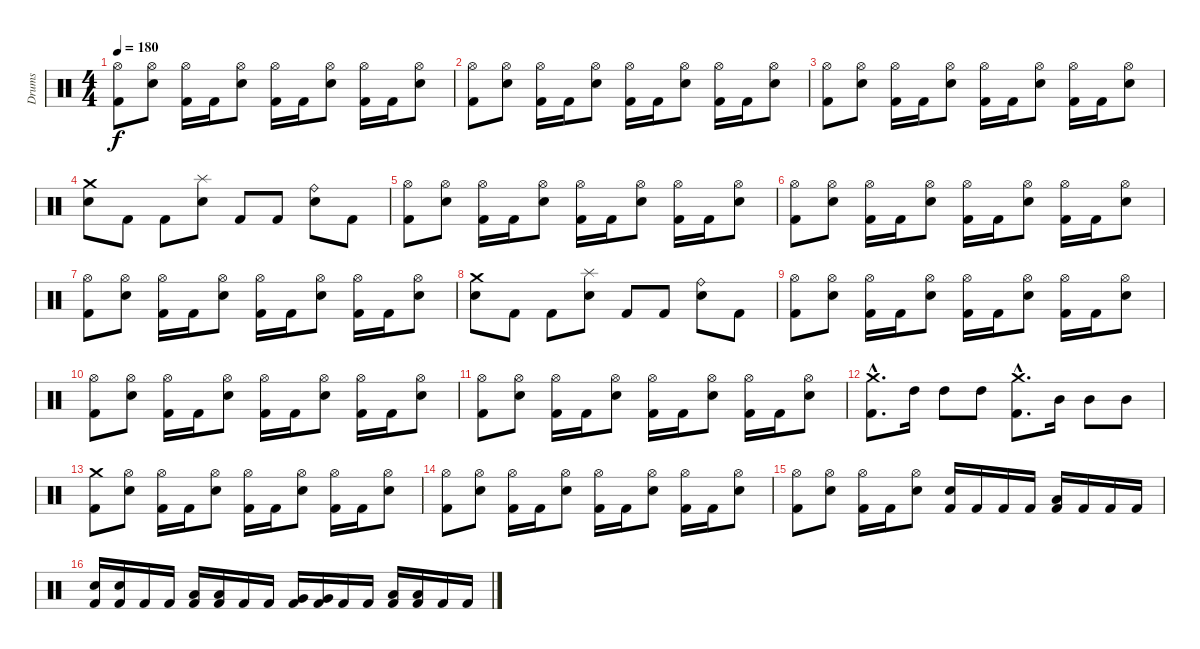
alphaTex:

\track ("Drums" "Drums") {instrument percussion}
\staff {score}
\articulation defaults
\ts (4 4)
\tempo 180
\clef neutral
\ks c
("Hi-Hat (open)" "Kick (hit) 2").8{dy f} ("Hi-Hat (open)" "Electric Snare (hit)").8 ("Hi-Hat (open)" "Kick (hit) 2").16 "Kick (hit) 2".16 ("Hi-Hat (open)" "Electric Snare (hit)").8 ("Hi-Hat (open)" "Kick (hit) 2").16 "Kick (hit) 2".16 ("Hi-Hat (open)" "Electric Snare (hit)").8 ("Hi-Hat (open)" "Kick (hit) 2").16 "Kick (hit) 2".16 ("Hi-Hat (open)" "Electric Snare (hit)").8 |
("Hi-Hat (open)" "Kick (hit) 2").8 ("Hi-Hat (open)" "Electric Snare (hit)").8 ("Hi-Hat (open)" "Kick (hit) 2").16 "Kick (hit) 2".16 ("Hi-Hat (open)" "Electric Snare (hit)").8 ("Hi-Hat (open)" "Kick (hit) 2").16 "Kick (hit) 2".16 ("Hi-Hat (open)" "Electric Snare (hit)").8 ("Hi-Hat (open)" "Kick (hit) 2").16 "Kick (hit) 2".16 ("Hi-Hat (open)" "Electric Snare (hit)").8 |
("Hi-Hat (open)" "Kick (hit) 2").8 ("Hi-Hat (open)" "Electric Snare (hit)").8 ("Hi-Hat (open)" "Kick (hit) 2").16 "Kick (hit) 2".16 ("Hi-Hat (open)" "Electric Snare (hit)").8 ("Hi-Hat (open)" "Kick (hit) 2").16 "Kick (hit) 2".16 ("Hi-Hat (open)" "Electric Snare (hit)").8 ("Hi-Hat (open)" "Kick (hit) 2").16 "Kick (hit) 2".16 ("Hi-Hat (open)" "Electric Snare (hit)").8 |
("Crash medium (hit)" "Electric Snare (hit)").8 "Kick (hit) 2".8 "Kick (hit) 2".8 ("Splash (hit)" "Electric Snare (hit)").8 "Kick (hit) 2".8 "Kick (hit) 2".8 ("Ride (bell)" "Electric Snare (hit)").8 "Kick (hit) 2".8 |
("Hi-Hat (open)" "Kick (hit) 2").8 ("Hi-Hat (open)" "Electric Snare (hit)").8 ("Hi-Hat (open)" "Kick (hit) 2").16 "Kick (hit) 2".16 ("Hi-Hat (open)" "Electric Snare (hit)").8 ("Hi-Hat (open)" "Kick (hit) 2").16 "Kick (hit) 2".16 ("Hi-Hat (open)" "Electric Snare (hit)").8 ("Hi-Hat (open)" "Kick (hit) 2").16 "Kick (hit) 2".16 ("Hi-Hat (open)" "Electric Snare (hit)").8 |
("Hi-Hat (open)" "Kick (hit) 2").8 ("Hi-Hat (open)" "Electric Snare (hit)").8 ("Hi-Hat (open)" "Kick (hit) 2").16 "Kick (hit) 2".16 ("Hi-Hat (open)" "Electric Snare (hit)").8 ("Hi-Hat (open)" "Kick (hit) 2").16 "Kick (hit) 2".16 ("Hi-Hat (open)" "Electric Snare (hit)").8 ("Hi-Hat (open)" "Kick (hit) 2").16 "Kick (hit) 2".16 ("Hi-Hat (open)" "Electric Snare (hit)").8 |
("Hi-Hat (open)" "Kick (hit) 2").8 ("Hi-Hat (open)" "Electric Snare (hit)").8 ("Hi-Hat (open)" "Kick (hit) 2").16 "Kick (hit) 2".16 ("Hi-Hat (open)" "Electric Snare (hit)").8 ("Hi-Hat (open)" "Kick (hit) 2").16 "Kick (hit) 2".16 ("Hi-Hat (open)" "Electric Snare (hit)").8 ("Hi-Hat (open)" "Kick (hit) 2").16 "Kick (hit) 2".16 ("Hi-Hat (open)" "Electric Snare (hit)").8 |
("Crash medium (hit)" "Electric Snare (hit)").8 "Kick (hit) 2".8 "Kick (hit) 2".8 ("Splash (hit)" "Electric Snare (hit)").8 "Kick (hit) 2".8 "Kick (hit) 2".8 ("Ride (bell)" "Electric Snare (hit)").8 "Kick (hit) 2".8 |
("Hi-Hat (open)" "Kick (hit) 2").8 ("Hi-Hat (open)" "Electric Snare (hit)").8 ("Hi-Hat (open)" "Kick (hit) 2").16 "Kick (hit) 2".16 ("Hi-Hat (open)" "Electric Snare (hit)").8 ("Hi-Hat (open)" "Kick (hit) 2").16 "Kick (hit) 2".16 ("Hi-Hat (open)" "Electric Snare (hit)").8 ("Hi-Hat (open)" "Kick (hit) 2").16 "Kick (hit) 2".16 ("Hi-Hat (open)" "Electric Snare (hit)").8 |
("Hi-Hat (open)" "Kick (hit) 2").8 ("Hi-Hat (open)" "Electric Snare (hit)").8 ("Hi-Hat (open)" "Kick (hit) 2").16 "Kick (hit) 2".16 ("Hi-Hat (open)" "Electric Snare (hit)").8 ("Hi-Hat (open)" "Kick (hit) 2").16 "Kick (hit) 2".16 ("Hi-Hat (open)" "Electric Snare (hit)").8 ("Hi-Hat (open)" "Kick (hit) 2").16 "Kick (hit) 2".16 ("Hi-Hat (open)" "Electric Snare (hit)").8 |
("Hi-Hat (open)" "Kick (hit) 2").8 ("Hi-Hat (open)" "Electric Snare (hit)").8 ("Hi-Hat (open)" "Kick (hit) 2").16 "Kick (hit) 2".16 ("Hi-Hat (open)" "Electric Snare (hit)").8 ("Hi-Hat (open)" "Kick (hit) 2").16 "Kick (hit) 2".16 ("Hi-Hat (open)" "Electric Snare (hit)").8 ("Hi-Hat (open)" "Kick (hit) 2").16 "Kick (hit) 2".16 ("Hi-Hat (open)" "Electric Snare (hit)").8 |
("Crash medium (hit)"{hac} "Kick (hit) 2"{hac}).8{d} "High Tom (hit)".16 "High Tom (hit)".8 "High Tom (hit)".8 ("Crash medium (hit)"{hac} "Kick (hit) 2"{hac}).8{d} "Mid Tom (hit)".16 "Mid Tom (hit)".8 "Mid Tom (hit)".8 |
("Crash medium (hit)" "Kick (hit) 2").8 ("Hi-Hat (open)" "Electric Snare (hit)").8 ("Hi-Hat (open)" "Kick (hit) 2").16 "Kick (hit) 2".16 ("Hi-Hat (open)" "Electric Snare (hit)").8 ("Hi-Hat (open)" "Kick (hit) 2").16 "Kick (hit) 2".16 ("Hi-Hat (open)" "Electric Snare (hit)").8 ("Hi-Hat (open)" "Kick (hit) 2").16 "Kick (hit) 2".16 ("Hi-Hat (open)" "Electric Snare (hit)").8 |
("Hi-Hat (open)" "Kick (hit) 2").8 ("Hi-Hat (open)" "Electric Snare (hit)").8 ("Hi-Hat (open)" "Kick (hit) 2").16 "Kick (hit) 2".16 ("Hi-Hat (open)" "Electric Snare (hit)").8 ("Hi-Hat (open)" "Kick (hit) 2").16 "Kick (hit) 2".16 ("Hi-Hat (open)" "Electric Snare (hit)").8 ("Hi-Hat (open)" "Kick (hit) 2").16 "Kick (hit) 2".16 ("Hi-Hat (open)" "Electric Snare (hit)").8 |
("Hi-Hat (open)" "Kick (hit) 2").8 ("Hi-Hat (open)" "Electric Snare (hit)").8 ("Hi-Hat (open)" "Kick (hit) 2").16 "Kick (hit) 2".16 ("Hi-Hat (open)" "Electric Snare (hit)").8 ("Electric Snare (hit)" "Kick (hit) 2").16 "Kick (hit) 2".16 "Kick (hit) 2".16 "Kick (hit) 2".16 ("Low Tom (hit)" "Kick (hit) 2").16 "Kick (hit) 2".16 "Kick (hit) 2".16 "Kick (hit) 2".16 |
("Electric Snare (hit)" "Kick (hit) 2").16 ("Electric Snare (hit)" "Kick (hit) 2").16 "Kick (hit) 2".16 "Kick (hit) 2".16 ("Low Tom (hit)" "Kick (hit) 2").16 ("Low Tom (hit)" "Kick (hit) 2").16 "Kick (hit) 2".16 "Kick (hit) 2".16 ("Very Low Tom (hit)" "Kick (hit) 2").16 ("Very Low Tom (hit)" "Kick (hit) 2").16 "Kick (hit) 2".16 "Kick (hit) 2".16 ("Low Floor Tom (hit)" "Kick (hit) 2").16 ("Low Floor Tom (hit)" "Kick (hit) 2").16 "Kick (hit) 2".16 "Kick (hit) 2".16
